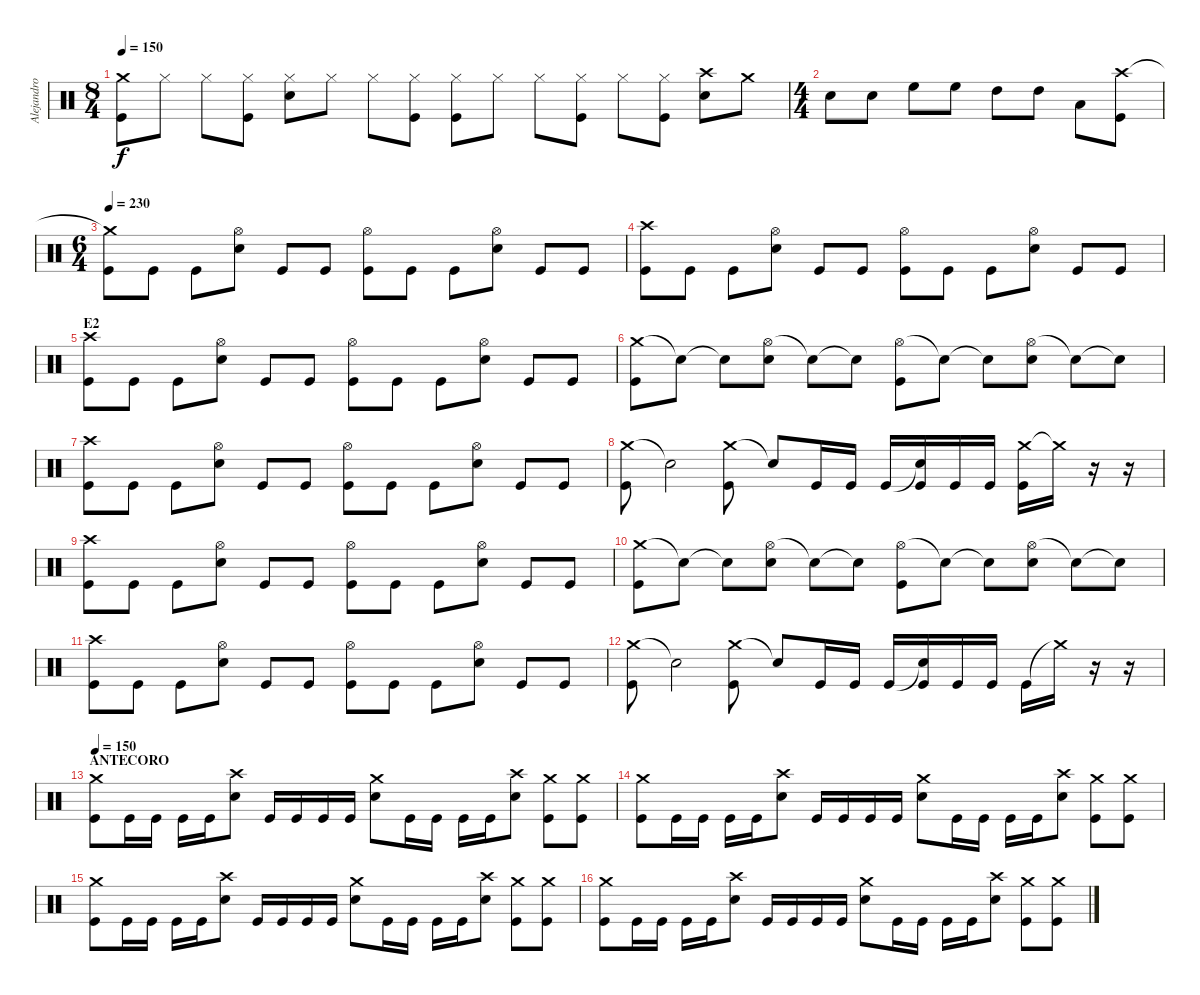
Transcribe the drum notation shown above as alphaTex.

\track ("Alejandro M. (Bateria)" "Alejandro ") {instrument percussion}
\staff {score}
\articulation defaults
\ts (8 4)
\tempo 150
\clef neutral
\ks c
("Crash medium (hit)" "Kick (hit)").8{dy f} "Hi-Hat (closed)".8 "Hi-Hat (closed)".8 ("Hi-Hat (closed)" "Kick (hit)").8 ("Hi-Hat (closed)" "Snare (hit) 2").8 "Hi-Hat (closed)".8 "Hi-Hat (closed)".8 ("Hi-Hat (closed)" "Kick (hit)").8 ("Hi-Hat (closed)" "Kick (hit)").8 "Hi-Hat (closed)".8 "Hi-Hat (closed)".8 ("Hi-Hat (closed)" "Kick (hit)").8 "Hi-Hat (closed)".8 ("Hi-Hat (closed)" "Kick (hit)").8 ("Crash high (hit)" "Snare (hit) 2").8 "Crash medium (hit)".8 |
\ts (4 4)
"Snare (hit) 2".8 "Snare (hit) 2".8 "High Floor Tom (hit)".8 "High Floor Tom (hit)".8 "High Tom (hit)".8 "High Tom (hit)".8 "Low Tom (hit)".8 ("Crash high (hit)" "Kick (hit)").8 |
\ts (6 4)
\tempo 230
("Crash medium (hit)"{t} "Kick (hit)").8 "Kick (hit)".8 "Kick (hit)".8 ("Hi-Hat (open)" "Snare (hit) 2").8 "Kick (hit)".8 "Kick (hit)".8 ("Hi-Hat (open)" "Kick (hit)").8 "Kick (hit)".8 "Kick (hit)".8 ("Hi-Hat (open)" "Snare (hit) 2").8 "Kick (hit)".8 "Kick (hit)".8 |
("Crash high (hit)" "Kick (hit)").8 "Kick (hit)".8 "Kick (hit)".8 ("Hi-Hat (open)" "Snare (hit) 2").8 "Kick (hit)".8 "Kick (hit)".8 ("Hi-Hat (open)" "Kick (hit)").8 "Kick (hit)".8 "Kick (hit)".8 ("Hi-Hat (open)" "Snare (hit) 2").8 "Kick (hit)".8 "Kick (hit)".8 |
\section ("" "E2")
("Crash high (hit)" "Kick (hit)").8 "Kick (hit)".8 "Kick (hit)".8 ("Hi-Hat (open)" "Snare (hit) 2").8 "Kick (hit)".8 "Kick (hit)".8 ("Hi-Hat (open)" "Kick (hit)").8 "Kick (hit)".8 "Kick (hit)".8 ("Hi-Hat (open)" "Snare (hit) 2").8 "Kick (hit)".8 "Kick (hit)".8 |
("Crash medium (hit)" "Kick (hit)").8 "Snare (hit)"{t}.8 "Snare (hit)"{t}.8 ("Hi-Hat (open)" "Snare (hit) 2").8 "Snare (hit)"{t}.8 "Snare (hit)"{t}.8 ("Hi-Hat (open)" "Kick (hit)").8 "Snare (hit)"{t}.8 "Snare (hit)"{t}.8 ("Hi-Hat (open)" "Snare (hit) 2").8 "Snare (hit)"{t}.8 "Snare (hit)"{t}.8 |
("Crash high (hit)" "Kick (hit)").8 "Kick (hit)".8 "Kick (hit)".8 ("Hi-Hat (open)" "Snare (hit) 2").8 "Kick (hit)".8 "Kick (hit)".8 ("Hi-Hat (open)" "Kick (hit)").8 "Kick (hit)".8 "Kick (hit)".8 ("Hi-Hat (open)" "Snare (hit) 2").8 "Kick (hit)".8 "Kick (hit)".8 |
("Crash medium (hit)" "Kick (hit)").8 "Snare (hit)"{t}.2 ("Crash medium (hit)" "Kick (hit)").8 "Snare (hit)"{t}.8 "Kick (hit)".16 "Kick (hit)".16 "Kick (hit)".16 ("Snare (hit)"{t} "Kick (hit)").16 "Kick (hit)".16 "Kick (hit)".16 ("Crash medium (hit)" "Kick (hit)").16 "Crash medium (hit)"{t}.16 r.16 r.16 |
("Crash high (hit)" "Kick (hit)").8 "Kick (hit)".8 "Kick (hit)".8 ("Hi-Hat (open)" "Snare (hit) 2").8 "Kick (hit)".8 "Kick (hit)".8 ("Hi-Hat (open)" "Kick (hit)").8 "Kick (hit)".8 "Kick (hit)".8 ("Hi-Hat (open)" "Snare (hit) 2").8 "Kick (hit)".8 "Kick (hit)".8 |
("Crash medium (hit)" "Kick (hit)").8 "Snare (hit)"{t}.8 "Snare (hit)"{t}.8 ("Hi-Hat (open)" "Snare (hit) 2").8 "Snare (hit)"{t}.8 "Snare (hit)"{t}.8 ("Hi-Hat (open)" "Kick (hit)").8 "Snare (hit)"{t}.8 "Snare (hit)"{t}.8 ("Hi-Hat (open)" "Snare (hit) 2").8 "Snare (hit)"{t}.8 "Snare (hit)"{t}.8 |
("Crash high (hit)" "Kick (hit)").8 "Kick (hit)".8 "Kick (hit)".8 ("Hi-Hat (open)" "Snare (hit) 2").8 "Kick (hit)".8 "Kick (hit)".8 ("Hi-Hat (open)" "Kick (hit)").8 "Kick (hit)".8 "Kick (hit)".8 ("Hi-Hat (open)" "Snare (hit) 2").8 "Kick (hit)".8 "Kick (hit)".8 |
("Crash medium (hit)" "Kick (hit)").8 "Snare (hit)"{t}.2 ("Crash medium (hit)" "Kick (hit)").8 "Snare (hit)"{t}.8 "Kick (hit)".16 "Kick (hit)".16 "Kick (hit)".16 ("Snare (hit)"{t} "Kick (hit)").16 "Kick (hit)".16 "Kick (hit)".16 "Kick (hit)".16 "Crash medium (hit)"{t}.16 r.16 r.16 |
\section ("" "ANTECORO")
\tempo 150
("Crash medium (hit)" "Kick (hit)").8 "Kick (hit)".16 "Kick (hit)".16 "Kick (hit)".16 "Kick (hit)".16 ("Crash high (hit)" "Snare (hit) 2").8 "Kick (hit)".16 "Kick (hit)".16 "Kick (hit)".16 "Kick (hit)".16 ("Crash medium (hit)" "Snare (hit) 2").8 "Kick (hit)".16 "Kick (hit)".16 "Kick (hit)".16 "Kick (hit)".16 ("Crash high (hit)" "Snare (hit) 2").8 ("Crash medium (hit)" "Kick (hit)").8 ("Crash medium (hit)" "Kick (hit)").8 |
("Crash medium (hit)" "Kick (hit)").8 "Kick (hit)".16 "Kick (hit)".16 "Kick (hit)".16 "Kick (hit)".16 ("Crash high (hit)" "Snare (hit) 2").8 "Kick (hit)".16 "Kick (hit)".16 "Kick (hit)".16 "Kick (hit)".16 ("Crash medium (hit)" "Snare (hit) 2").8 "Kick (hit)".16 "Kick (hit)".16 "Kick (hit)".16 "Kick (hit)".16 ("Crash high (hit)" "Snare (hit) 2").8 ("Crash medium (hit)" "Kick (hit)").8 ("Crash medium (hit)" "Kick (hit)").8 |
("Crash medium (hit)" "Kick (hit)").8 "Kick (hit)".16 "Kick (hit)".16 "Kick (hit)".16 "Kick (hit)".16 ("Crash high (hit)" "Snare (hit) 2").8 "Kick (hit)".16 "Kick (hit)".16 "Kick (hit)".16 "Kick (hit)".16 ("Crash medium (hit)" "Snare (hit) 2").8 "Kick (hit)".16 "Kick (hit)".16 "Kick (hit)".16 "Kick (hit)".16 ("Crash high (hit)" "Snare (hit) 2").8 ("Crash medium (hit)" "Kick (hit)").8 ("Crash medium (hit)" "Kick (hit)").8 |
("Crash medium (hit)" "Kick (hit)").8 "Kick (hit)".16 "Kick (hit)".16 "Kick (hit)".16 "Kick (hit)".16 ("Crash high (hit)" "Snare (hit) 2").8 "Kick (hit)".16 "Kick (hit)".16 "Kick (hit)".16 "Kick (hit)".16 ("Crash medium (hit)" "Snare (hit) 2").8 "Kick (hit)".16 "Kick (hit)".16 "Kick (hit)".16 "Kick (hit)".16 ("Crash high (hit)" "Snare (hit) 2").8 ("Crash medium (hit)" "Kick (hit)").8 ("Crash medium (hit)" "Kick (hit)").8
